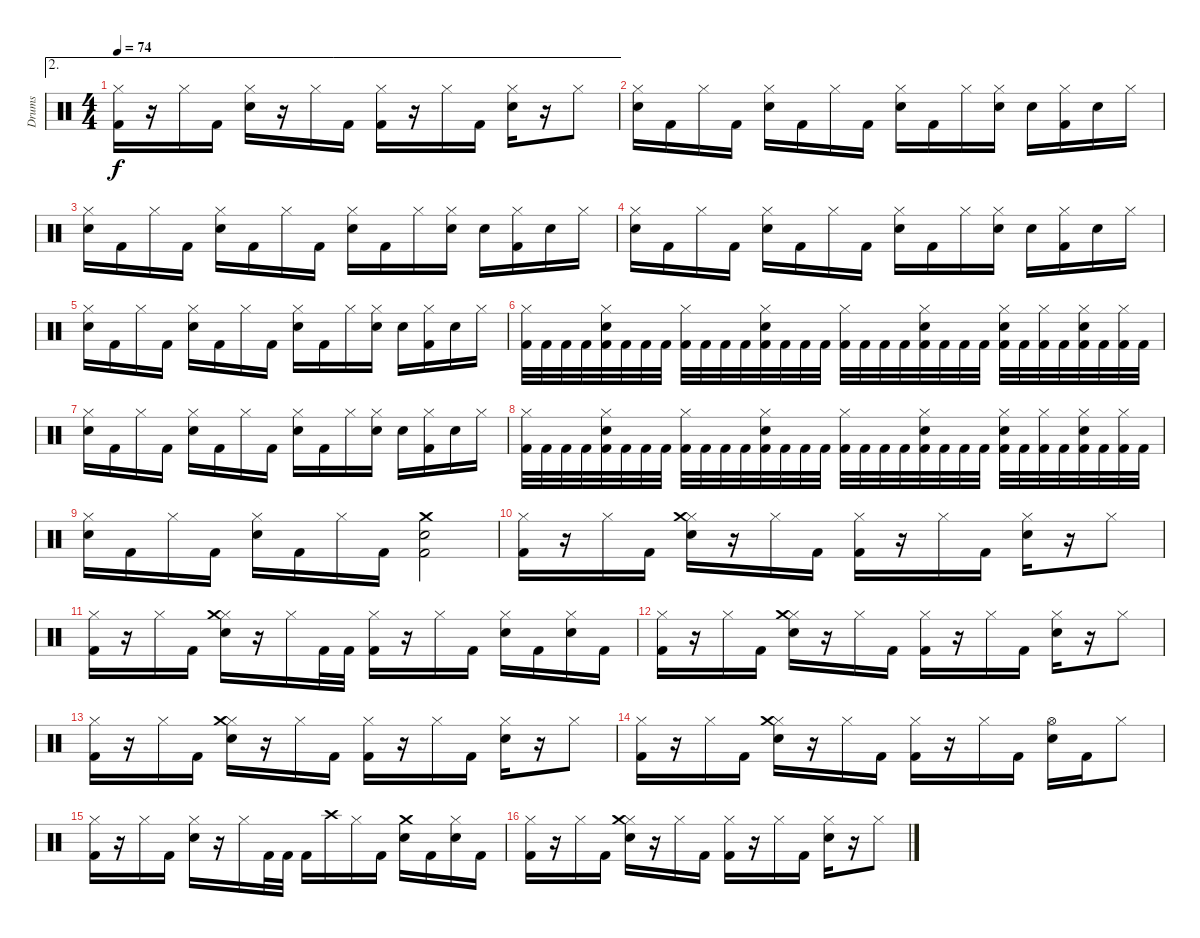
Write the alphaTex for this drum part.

\track ("Drums" "Drums") {instrument percussion}
\staff {score}
\articulation defaults
\ae 2
\ts (4 4)
\tempo 74
\clef neutral
\ks c
("Hi-Hat (closed)" "Kick (hit) 2").16{dy f} r.16 "Hi-Hat (closed)".16 "Kick (hit) 2".16 ("Hi-Hat (closed)" "Snare (hit) 2").16 r.16 "Hi-Hat (closed)".16 "Kick (hit) 2".16 ("Hi-Hat (closed)" "Kick (hit) 2").16 r.16 "Hi-Hat (closed)".16 "Kick (hit) 2".16 ("Hi-Hat (closed)" "Snare (hit) 2").16 r.16 "Hi-Hat (closed)".8 |
("Hi-Hat (closed)" "Snare (hit) 2").16 "Kick (hit) 2".16 "Hi-Hat (closed)".16 "Kick (hit) 2".16 ("Hi-Hat (closed)" "Snare (hit) 2").16 "Kick (hit) 2".16 "Hi-Hat (closed)".16 "Kick (hit) 2".16 ("Hi-Hat (closed)" "Snare (hit) 2").16 "Kick (hit) 2".16 "Hi-Hat (closed)".16 ("Hi-Hat (closed)" "Snare (hit) 2").16 "Snare (hit) 2".16 ("Hi-Hat (closed)" "Kick (hit) 2").16 "Snare (hit) 2".16 "Hi-Hat (closed)".16 |
("Hi-Hat (closed)" "Snare (hit) 2").16 "Kick (hit) 2".16 "Hi-Hat (closed)".16 "Kick (hit) 2".16 ("Hi-Hat (closed)" "Snare (hit) 2").16 "Kick (hit) 2".16 "Hi-Hat (closed)".16 "Kick (hit) 2".16 ("Hi-Hat (closed)" "Snare (hit) 2").16 "Kick (hit) 2".16 "Hi-Hat (closed)".16 ("Hi-Hat (closed)" "Snare (hit) 2").16 "Snare (hit) 2".16 ("Hi-Hat (closed)" "Kick (hit) 2").16 "Snare (hit) 2".16 "Hi-Hat (closed)".16 |
("Hi-Hat (closed)" "Snare (hit) 2").16 "Kick (hit) 2".16 "Hi-Hat (closed)".16 "Kick (hit) 2".16 ("Hi-Hat (closed)" "Snare (hit) 2").16 "Kick (hit) 2".16 "Hi-Hat (closed)".16 "Kick (hit) 2".16 ("Hi-Hat (closed)" "Snare (hit) 2").16 "Kick (hit) 2".16 "Hi-Hat (closed)".16 ("Hi-Hat (closed)" "Snare (hit) 2").16 "Snare (hit) 2".16 ("Hi-Hat (closed)" "Kick (hit) 2").16 "Snare (hit) 2".16 "Hi-Hat (closed)".16 |
("Hi-Hat (closed)" "Snare (hit) 2").16 "Kick (hit) 2".16 "Hi-Hat (closed)".16 "Kick (hit) 2".16 ("Hi-Hat (closed)" "Snare (hit) 2").16 "Kick (hit) 2".16 "Hi-Hat (closed)".16 "Kick (hit) 2".16 ("Hi-Hat (closed)" "Snare (hit) 2").16 "Kick (hit) 2".16 "Hi-Hat (closed)".16 ("Hi-Hat (closed)" "Snare (hit) 2").16 "Snare (hit) 2".16 ("Hi-Hat (closed)" "Kick (hit) 2").16 "Snare (hit) 2".16 "Hi-Hat (closed)".16 |
("Hi-Hat (closed)" "Kick (hit) 2").32 "Kick (hit) 2".32 "Kick (hit) 2".32 "Kick (hit) 2".32 ("Hi-Hat (closed)" "Snare (hit) 2" "Kick (hit) 2").32 "Kick (hit) 2".32 "Kick (hit) 2".32 "Kick (hit) 2".32 ("Hi-Hat (closed)" "Kick (hit) 2").32 "Kick (hit) 2".32 "Kick (hit) 2".32 "Kick (hit) 2".32 ("Hi-Hat (closed)" "Snare (hit) 2" "Kick (hit) 2").32 "Kick (hit) 2".32 "Kick (hit) 2".32 "Kick (hit) 2".32 ("Hi-Hat (closed)" "Kick (hit) 2").32 "Kick (hit) 2".32 "Kick (hit) 2".32 "Kick (hit) 2".32 ("Hi-Hat (closed)" "Snare (hit) 2" "Kick (hit) 2").32 "Kick (hit) 2".32 "Kick (hit) 2".32 "Kick (hit) 2".32 ("Hi-Hat (closed)" "Snare (hit) 2" "Kick (hit) 2").32 "Kick (hit) 2".32 ("Hi-Hat (closed)" "Kick (hit) 2").32 "Kick (hit) 2".32 ("Hi-Hat (closed)" "Snare (hit) 2" "Kick (hit) 2").32 "Kick (hit) 2".32 ("Hi-Hat (closed)" "Kick (hit) 2").32 "Kick (hit) 2".32 |
("Hi-Hat (closed)" "Snare (hit) 2").16 "Kick (hit) 2".16 "Hi-Hat (closed)".16 "Kick (hit) 2".16 ("Hi-Hat (closed)" "Snare (hit) 2").16 "Kick (hit) 2".16 "Hi-Hat (closed)".16 "Kick (hit) 2".16 ("Hi-Hat (closed)" "Snare (hit) 2").16 "Kick (hit) 2".16 "Hi-Hat (closed)".16 ("Hi-Hat (closed)" "Snare (hit) 2").16 "Snare (hit) 2".16 ("Hi-Hat (closed)" "Kick (hit) 2").16 "Snare (hit) 2".16 "Hi-Hat (closed)".16 |
("Hi-Hat (closed)" "Kick (hit) 2").32 "Kick (hit) 2".32 "Kick (hit) 2".32 "Kick (hit) 2".32 ("Hi-Hat (closed)" "Snare (hit) 2" "Kick (hit) 2").32 "Kick (hit) 2".32 "Kick (hit) 2".32 "Kick (hit) 2".32 ("Hi-Hat (closed)" "Kick (hit) 2").32 "Kick (hit) 2".32 "Kick (hit) 2".32 "Kick (hit) 2".32 ("Hi-Hat (closed)" "Snare (hit) 2" "Kick (hit) 2").32 "Kick (hit) 2".32 "Kick (hit) 2".32 "Kick (hit) 2".32 ("Hi-Hat (closed)" "Kick (hit) 2").32 "Kick (hit) 2".32 "Kick (hit) 2".32 "Kick (hit) 2".32 ("Hi-Hat (closed)" "Snare (hit) 2" "Kick (hit) 2").32 "Kick (hit) 2".32 "Kick (hit) 2".32 "Kick (hit) 2".32 ("Hi-Hat (closed)" "Snare (hit) 2" "Kick (hit) 2").32 "Kick (hit) 2".32 ("Hi-Hat (closed)" "Kick (hit) 2").32 "Kick (hit) 2".32 ("Hi-Hat (closed)" "Snare (hit) 2" "Kick (hit) 2").32 "Kick (hit) 2".32 ("Hi-Hat (closed)" "Kick (hit) 2").32 "Kick (hit) 2".32 |
("Hi-Hat (closed)" "Snare (hit) 2").16 "Kick (hit) 2".16 "Hi-Hat (closed)".16 "Kick (hit) 2".16 ("Hi-Hat (closed)" "Snare (hit) 2").16 "Kick (hit) 2".16 "Hi-Hat (closed)".16 "Kick (hit) 2".16 ("Crash medium (hit)" "Snare (hit) 2" "Kick (hit) 2").2 |
("Hi-Hat (closed)" "Kick (hit) 2").16 r.16 "Hi-Hat (closed)".16 "Kick (hit) 2".16 ("Hi-Hat (closed)" "Snare (hit) 2" "Crash medium (hit)").16 r.16 "Hi-Hat (closed)".16 "Kick (hit) 2".16 ("Hi-Hat (closed)" "Kick (hit) 2").16 r.16 "Hi-Hat (closed)".16 "Kick (hit) 2".16 ("Hi-Hat (closed)" "Snare (hit) 2").16 r.16 "Hi-Hat (closed)".8 |
("Hi-Hat (closed)" "Kick (hit) 2").16 r.16 "Hi-Hat (closed)".16 "Kick (hit) 2".16 ("Hi-Hat (closed)" "Snare (hit) 2" "Crash medium (hit)").16 r.16 "Hi-Hat (closed)".16 "Kick (hit) 2".32 "Kick (hit) 2".32 ("Hi-Hat (closed)" "Kick (hit) 2").16 r.16 "Hi-Hat (closed)".16 "Kick (hit) 2".16 ("Hi-Hat (closed)" "Snare (hit) 2").16 "Kick (hit) 2".16 ("Hi-Hat (closed)" "Snare (hit) 2").16 "Kick (hit) 2".16 |
("Hi-Hat (closed)" "Kick (hit) 2").16 r.16 "Hi-Hat (closed)".16 "Kick (hit) 2".16 ("Hi-Hat (closed)" "Snare (hit) 2" "Crash medium (hit)").16 r.16 "Hi-Hat (closed)".16 "Kick (hit) 2".16 ("Hi-Hat (closed)" "Kick (hit) 2").16 r.16 "Hi-Hat (closed)".16 "Kick (hit) 2".16 ("Hi-Hat (closed)" "Snare (hit) 2").16 r.16 "Hi-Hat (closed)".8 |
("Hi-Hat (closed)" "Kick (hit) 2").16 r.16 "Hi-Hat (closed)".16 "Kick (hit) 2".16 ("Hi-Hat (closed)" "Snare (hit) 2" "Crash medium (hit)").16 r.16 "Hi-Hat (closed)".16 "Kick (hit) 2".16 ("Hi-Hat (closed)" "Kick (hit) 2").16 r.16 "Hi-Hat (closed)".16 "Kick (hit) 2".16 ("Hi-Hat (closed)" "Snare (hit) 2").16 r.16 "Hi-Hat (closed)".8 |
("Hi-Hat (closed)" "Kick (hit) 2").16 r.16 "Hi-Hat (closed)".16 "Kick (hit) 2".16 ("Hi-Hat (closed)" "Snare (hit) 2" "Crash medium (hit)").16 r.16 "Hi-Hat (closed)".16 "Kick (hit) 2".16 ("Hi-Hat (closed)" "Kick (hit) 2").16 r.16 "Hi-Hat (closed)".16 "Kick (hit) 2".16 ("Hi-Hat (open)" "Snare (hit) 2").16 "Kick (hit) 2".16 "Hi-Hat (closed)".8 |
("Hi-Hat (closed)" "Kick (hit) 2").16 r.16 "Hi-Hat (closed)".16 "Kick (hit) 2".16 ("Hi-Hat (closed)" "Snare (hit) 2").16 r.16 "Hi-Hat (closed)".16 "Kick (hit) 2".32 "Kick (hit) 2".32 "Kick (hit) 2".16 "Crash high (hit)".16 "Hi-Hat (closed)".16 "Kick (hit) 2".16 ("Crash medium (hit)" "Snare (hit) 2").16 "Kick (hit) 2".16 ("Hi-Hat (closed)" "Snare (hit) 2").16 "Kick (hit) 2".16 |
("Hi-Hat (closed)" "Kick (hit) 2").16 r.16 "Hi-Hat (closed)".16 "Kick (hit) 2".16 ("Hi-Hat (closed)" "Snare (hit) 2" "Crash medium (hit)").16 r.16 "Hi-Hat (closed)".16 "Kick (hit) 2".16 ("Hi-Hat (closed)" "Kick (hit) 2").16 r.16 "Hi-Hat (closed)".16 "Kick (hit) 2".16 ("Hi-Hat (closed)" "Snare (hit) 2").16 r.16 "Hi-Hat (closed)".8
